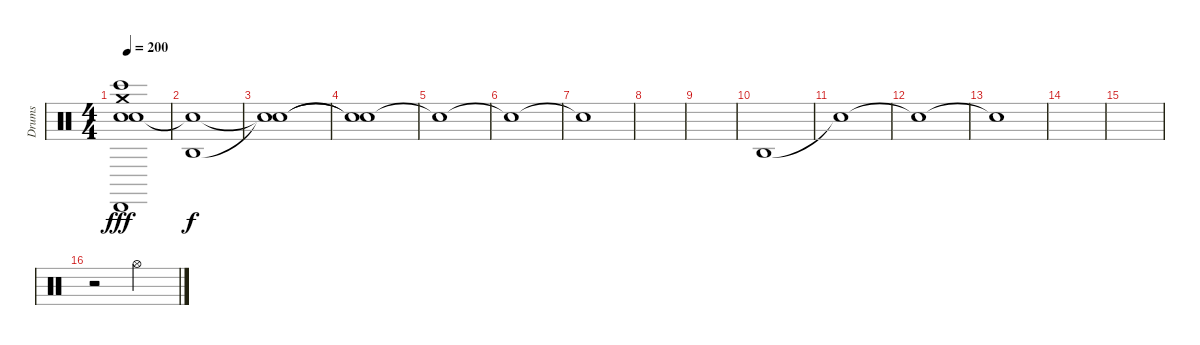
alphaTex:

\track ("Drums" "Drums") {instrument percussion}
\staff {score}
\articulation defaults
\ts (4 4)
\tempo 200
\clef neutral
\ks c
("Crash medium (hit)" "Snare (hit) 2" "Bongo High (hit)" "Electric Snare (hit)" "Cabasa (hit)").1{dy fff volume 9} |
("Agogo high (hit)" "Snare (hit)"{t}).1{dy f} |
("Snare (hit)"{t} "Snare (hit)"{t}).1 |
("Snare (hit)"{t} "Snare (hit)"{t}).1 |
"Snare (hit)"{t}.1 |
"Snare (hit)"{t}.1 |
"Snare (hit)"{t}.1 |
|
|
"Agogo high (hit)".1 |
"Snare (hit)"{t}.1 |
"Snare (hit)"{t}.1 |
"Snare (hit)"{t}.1 |
|
|
r.2 "Hi-Hat (open)".2{volume 15}
